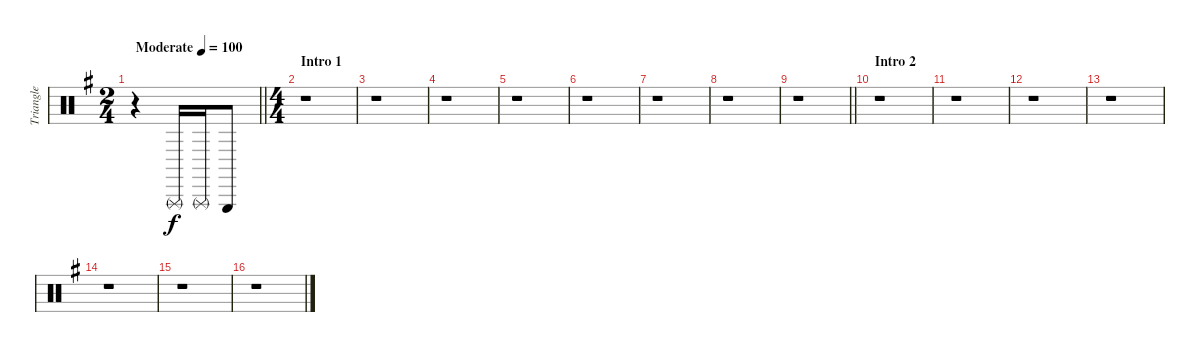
\track ("Triangle" "Triangle") {instrument percussion}
\staff {score}
\articulation defaults
\ts (2 4)
\tempo (100 "Moderate")
\clef neutral
\barLineRight lightlight
\ks g
r.4{dy f} "Triangle (rnute)".16 "Triangle (rnute)".16 "Triangle (hit)".8 |
\ts (4 4)
\section ("" "Intro 1")
r.1 |
r.1 |
r.1 |
r.1 |
r.1 |
r.1 |
r.1 |
\barLineRight lightlight
r.1 |
\section ("" "Intro 2")
r.1 |
r.1 |
r.1 |
r.1 |
r.1 |
r.1 |
r.1
